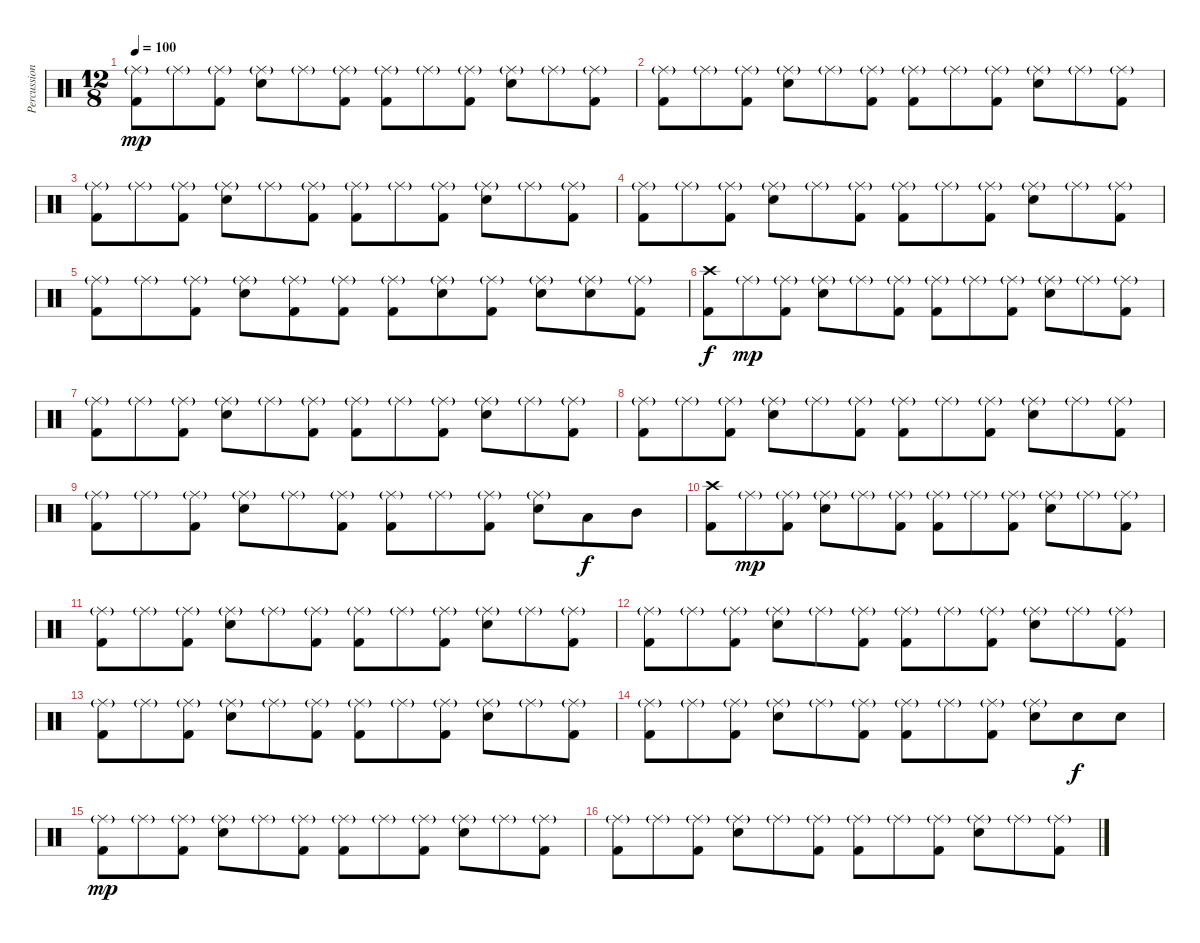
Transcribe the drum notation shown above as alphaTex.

\track ("Percussion" "Percussion") {instrument percussion}
\staff {score}
\articulation defaults
\ts (12 8)
\tempo 100
\clef neutral
\ks c
("Ride (middle)"{g} "Kick (hit) 2").8{dy mp} "Ride (middle)"{g}.8 ("Ride (middle)"{g} "Kick (hit) 2").8 ("Ride (middle)"{g} "Electric Snare (hit)").8 "Ride (middle)"{g}.8 ("Ride (middle)"{g} "Kick (hit) 2").8 ("Ride (middle)"{g} "Kick (hit) 2").8 "Ride (middle)"{g}.8 ("Ride (middle)"{g} "Kick (hit) 2").8 ("Ride (middle)"{g} "Electric Snare (hit)").8 "Ride (middle)"{g}.8 ("Ride (middle)"{g} "Kick (hit) 2").8 |
("Ride (middle)"{g} "Kick (hit) 2").8 "Ride (middle)"{g}.8 ("Ride (middle)"{g} "Kick (hit) 2").8 ("Ride (middle)"{g} "Electric Snare (hit)").8 "Ride (middle)"{g}.8 ("Ride (middle)"{g} "Kick (hit) 2").8 ("Ride (middle)"{g} "Kick (hit) 2").8 "Ride (middle)"{g}.8 ("Ride (middle)"{g} "Kick (hit) 2").8 ("Ride (middle)"{g} "Electric Snare (hit)").8 "Ride (middle)"{g}.8 ("Ride (middle)"{g} "Kick (hit) 2").8 |
("Ride (middle)"{g} "Kick (hit) 2").8 "Ride (middle)"{g}.8 ("Ride (middle)"{g} "Kick (hit) 2").8 ("Ride (middle)"{g} "Electric Snare (hit)").8 "Ride (middle)"{g}.8 ("Ride (middle)"{g} "Kick (hit) 2").8 ("Ride (middle)"{g} "Kick (hit) 2").8 "Ride (middle)"{g}.8 ("Ride (middle)"{g} "Kick (hit) 2").8 ("Ride (middle)"{g} "Electric Snare (hit)").8 "Ride (middle)"{g}.8 ("Ride (middle)"{g} "Kick (hit) 2").8 |
("Ride (middle)"{g} "Kick (hit) 2").8 "Ride (middle)"{g}.8 ("Ride (middle)"{g} "Kick (hit) 2").8 ("Ride (middle)"{g} "Electric Snare (hit)").8 "Ride (middle)"{g}.8 ("Ride (middle)"{g} "Kick (hit) 2").8 ("Ride (middle)"{g} "Kick (hit) 2").8 "Ride (middle)"{g}.8 ("Ride (middle)"{g} "Kick (hit) 2").8 ("Ride (middle)"{g} "Electric Snare (hit)").8 "Ride (middle)"{g}.8 ("Ride (middle)"{g} "Kick (hit) 2").8 |
("Ride (middle)"{g} "Kick (hit) 2").8 "Ride (middle)"{g}.8 ("Ride (middle)"{g} "Kick (hit) 2").8 ("Ride (middle)"{g} "Electric Snare (hit)").8 ("Ride (middle)"{g} "Kick (hit) 2").8 ("Ride (middle)"{g} "Kick (hit) 2").8 ("Ride (middle)"{g} "Kick (hit) 2").8 ("Ride (middle)"{g} "Electric Snare (hit)").8 ("Ride (middle)"{g} "Kick (hit) 2").8 ("Ride (middle)"{g} "Electric Snare (hit)").8 ("Ride (middle)"{g} "Electric Snare (hit)").8 ("Ride (middle)"{g} "Kick (hit) 2").8 |
("Crash high (hit)" "Kick (hit) 2").8{dy f} "Ride (middle)"{g}.8{dy mp} ("Ride (middle)"{g} "Kick (hit) 2").8 ("Ride (middle)"{g} "Electric Snare (hit)").8 "Ride (middle)"{g}.8 ("Ride (middle)"{g} "Kick (hit) 2").8 ("Ride (middle)"{g} "Kick (hit) 2").8 "Ride (middle)"{g}.8 ("Ride (middle)"{g} "Kick (hit) 2").8 ("Ride (middle)"{g} "Electric Snare (hit)").8 "Ride (middle)"{g}.8 ("Ride (middle)"{g} "Kick (hit) 2").8 |
("Ride (middle)"{g} "Kick (hit) 2").8 "Ride (middle)"{g}.8 ("Ride (middle)"{g} "Kick (hit) 2").8 ("Ride (middle)"{g} "Electric Snare (hit)").8 "Ride (middle)"{g}.8 ("Ride (middle)"{g} "Kick (hit) 2").8 ("Ride (middle)"{g} "Kick (hit) 2").8 "Ride (middle)"{g}.8 ("Ride (middle)"{g} "Kick (hit) 2").8 ("Ride (middle)"{g} "Electric Snare (hit)").8 "Ride (middle)"{g}.8 ("Ride (middle)"{g} "Kick (hit) 2").8 |
("Ride (middle)"{g} "Kick (hit) 2").8 "Ride (middle)"{g}.8 ("Ride (middle)"{g} "Kick (hit) 2").8 ("Ride (middle)"{g} "Electric Snare (hit)").8 "Ride (middle)"{g}.8 ("Ride (middle)"{g} "Kick (hit) 2").8 ("Ride (middle)"{g} "Kick (hit) 2").8 "Ride (middle)"{g}.8 ("Ride (middle)"{g} "Kick (hit) 2").8 ("Ride (middle)"{g} "Electric Snare (hit)").8 "Ride (middle)"{g}.8 ("Ride (middle)"{g} "Kick (hit) 2").8 |
("Ride (middle)"{g} "Kick (hit) 2").8 "Ride (middle)"{g}.8 ("Ride (middle)"{g} "Kick (hit) 2").8 ("Ride (middle)"{g} "Electric Snare (hit)").8 "Ride (middle)"{g}.8 ("Ride (middle)"{g} "Kick (hit) 2").8 ("Ride (middle)"{g} "Kick (hit) 2").8 "Ride (middle)"{g}.8 ("Ride (middle)"{g} "Kick (hit) 2").8 ("Ride (middle)"{g} "Electric Snare (hit)").8 "Low Tom (hit)".8{dy f} "Mid Tom (hit)".8 |
("Crash high (hit)" "Kick (hit) 2").8 "Ride (middle)"{g}.8{dy mp} ("Ride (middle)"{g} "Kick (hit) 2").8 ("Ride (middle)"{g} "Electric Snare (hit)").8 "Ride (middle)"{g}.8 ("Ride (middle)"{g} "Kick (hit) 2").8 ("Ride (middle)"{g} "Kick (hit) 2").8 "Ride (middle)"{g}.8 ("Ride (middle)"{g} "Kick (hit) 2").8 ("Ride (middle)"{g} "Electric Snare (hit)").8 "Ride (middle)"{g}.8 ("Ride (middle)"{g} "Kick (hit) 2").8 |
("Ride (middle)"{g} "Kick (hit) 2").8 "Ride (middle)"{g}.8 ("Ride (middle)"{g} "Kick (hit) 2").8 ("Ride (middle)"{g} "Electric Snare (hit)").8 "Ride (middle)"{g}.8 ("Ride (middle)"{g} "Kick (hit) 2").8 ("Ride (middle)"{g} "Kick (hit) 2").8 "Ride (middle)"{g}.8 ("Ride (middle)"{g} "Kick (hit) 2").8 ("Ride (middle)"{g} "Electric Snare (hit)").8 "Ride (middle)"{g}.8 ("Ride (middle)"{g} "Kick (hit) 2").8 |
("Ride (middle)"{g} "Kick (hit) 2").8 "Ride (middle)"{g}.8 ("Ride (middle)"{g} "Kick (hit) 2").8 ("Ride (middle)"{g} "Electric Snare (hit)").8 "Ride (middle)"{g}.8 ("Ride (middle)"{g} "Kick (hit) 2").8 ("Ride (middle)"{g} "Kick (hit) 2").8 "Ride (middle)"{g}.8 ("Ride (middle)"{g} "Kick (hit) 2").8 ("Ride (middle)"{g} "Electric Snare (hit)").8 "Ride (middle)"{g}.8 ("Ride (middle)"{g} "Kick (hit) 2").8 |
("Ride (middle)"{g} "Kick (hit) 2").8 "Ride (middle)"{g}.8 ("Ride (middle)"{g} "Kick (hit) 2").8 ("Ride (middle)"{g} "Electric Snare (hit)").8 "Ride (middle)"{g}.8 ("Ride (middle)"{g} "Kick (hit) 2").8 ("Ride (middle)"{g} "Kick (hit) 2").8 "Ride (middle)"{g}.8 ("Ride (middle)"{g} "Kick (hit) 2").8 ("Ride (middle)"{g} "Electric Snare (hit)").8 "Ride (middle)"{g}.8 ("Ride (middle)"{g} "Kick (hit) 2").8 |
("Ride (middle)"{g} "Kick (hit) 2").8 "Ride (middle)"{g}.8 ("Ride (middle)"{g} "Kick (hit) 2").8 ("Ride (middle)"{g} "Electric Snare (hit)").8 "Ride (middle)"{g}.8 ("Ride (middle)"{g} "Kick (hit) 2").8 ("Ride (middle)"{g} "Kick (hit) 2").8 "Ride (middle)"{g}.8 ("Ride (middle)"{g} "Kick (hit) 2").8 ("Ride (middle)"{g} "Electric Snare (hit)").8 "Electric Snare (hit)".8{dy f} "Electric Snare (hit)".8 |
("Ride (middle)"{g} "Kick (hit) 2").8{dy mp} "Ride (middle)"{g}.8 ("Ride (middle)"{g} "Kick (hit) 2").8 ("Ride (middle)"{g} "Electric Snare (hit)").8 "Ride (middle)"{g}.8 ("Ride (middle)"{g} "Kick (hit) 2").8 ("Ride (middle)"{g} "Kick (hit) 2").8 "Ride (middle)"{g}.8 ("Ride (middle)"{g} "Kick (hit) 2").8 ("Ride (middle)"{g} "Electric Snare (hit)").8 "Ride (middle)"{g}.8 ("Ride (middle)"{g} "Kick (hit) 2").8 |
("Ride (middle)"{g} "Kick (hit) 2").8 "Ride (middle)"{g}.8 ("Ride (middle)"{g} "Kick (hit) 2").8 ("Ride (middle)"{g} "Electric Snare (hit)").8 "Ride (middle)"{g}.8 ("Ride (middle)"{g} "Kick (hit) 2").8 ("Ride (middle)"{g} "Kick (hit) 2").8 "Ride (middle)"{g}.8 ("Ride (middle)"{g} "Kick (hit) 2").8 ("Ride (middle)"{g} "Electric Snare (hit)").8 "Ride (middle)"{g}.8 ("Ride (middle)"{g} "Kick (hit) 2").8
